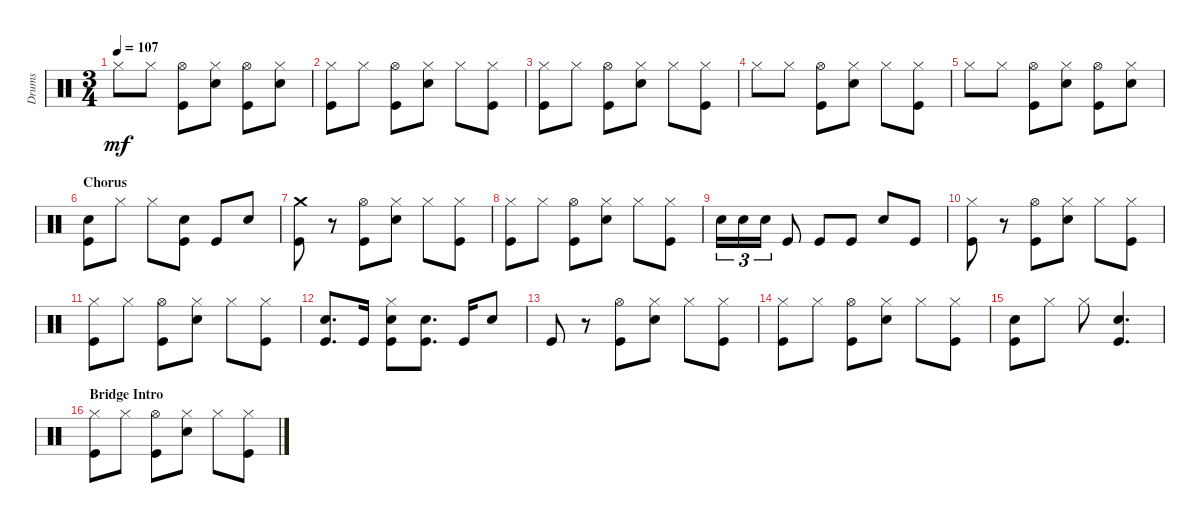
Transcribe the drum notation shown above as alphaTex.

\track ("Drums" "Drums") {instrument percussion}
\staff {score}
\articulation defaults
\ts (3 4)
\tempo 107
\clef neutral
\ks c "Hi-Hat (closed)".8{dy mf} "Hi-Hat (closed)".8
("Hi-Hat (open)" "Kick (hit)").8 ("Hi-Hat (closed)" "Snare (hit) 2").8 ("Hi-Hat (open)" "Kick (hit)").8 ("Hi-Hat (closed)" "Snare (hit) 2").8 |
("Hi-Hat (closed)" "Kick (hit)").8 "Hi-Hat (closed)".8 ("Hi-Hat (open)" "Kick (hit)").8 ("Snare (hit) 2" "Hi-Hat (closed)").8 "Hi-Hat (closed)".8 ("Hi-Hat (closed)" "Kick (hit)").8 |
("Hi-Hat (closed)" "Kick (hit)").8 "Hi-Hat (closed)".8 ("Hi-Hat (open)" "Kick (hit)").8 ("Hi-Hat (closed)" "Snare (hit) 2").8 "Hi-Hat (closed)".8 ("Hi-Hat (closed)" "Kick (hit)").8 |
"Hi-Hat (closed)".8 "Hi-Hat (closed)".8 ("Hi-Hat (open)" "Kick (hit)").8 ("Snare (hit) 2" "Hi-Hat (closed)").8 "Hi-Hat (closed)".8 ("Kick (hit)" "Hi-Hat (closed)").8 |
"Hi-Hat (closed)".8 "Hi-Hat (closed)".8 ("Hi-Hat (open)" "Kick (hit)").8 ("Hi-Hat (closed)" "Snare (hit) 2").8 ("Hi-Hat (open)" "Kick (hit)").8 ("Hi-Hat (closed)" "Snare (hit) 2").8 |
\section ("" "Chorus")
("Kick (hit)" "Snare (hit) 2").8 "Hi-Hat (closed)".8 "Hi-Hat (closed)".8 ("Kick (hit)" "Snare (hit) 2").8 "Kick (hit)".8 "Snare (hit) 2".8 |
("Kick (hit)" "Crash medium (hit)").8 r.8 ("Hi-Hat (open)" "Kick (hit)").8 ("Snare (hit) 2" "Hi-Hat (closed)").8 "Hi-Hat (closed)".8 ("Hi-Hat (closed)" "Kick (hit)").8 |
("Hi-Hat (closed)" "Kick (hit)").8 "Hi-Hat (closed)".8 ("Hi-Hat (open)" "Kick (hit)").8 ("Hi-Hat (closed)" "Snare (hit) 2").8 "Hi-Hat (closed)".8 ("Hi-Hat (closed)" "Kick (hit)").8 |
"Snare (hit) 2".16{tu (3 2)} "Snare (hit) 2".16{tu (3 2)} "Snare (hit) 2".16{tu (3 2)} "Kick (hit)".8 "Kick (hit)".8 "Kick (hit)".8 "Snare (hit) 2".8 "Kick (hit)".8 |
("Kick (hit)" "Hi-Hat (closed)").8 r.8 ("Hi-Hat (open)" "Kick (hit)").8 ("Snare (hit) 2" "Hi-Hat (closed)").8 "Hi-Hat (closed)".8 ("Hi-Hat (closed)" "Kick (hit)").8 |
("Hi-Hat (closed)" "Kick (hit)").8 "Hi-Hat (closed)".8 ("Hi-Hat (open)" "Kick (hit)").8 ("Hi-Hat (closed)" "Snare (hit) 2").8 "Hi-Hat (closed)".8 ("Hi-Hat (closed)" "Kick (hit)").8 |
("Kick (hit)" "Snare (hit) 2").8{d} "Kick (hit)".16 ("Hi-Hat (closed)" "Kick (hit)" "Snare (hit) 2").8 ("Kick (hit)" "Snare (hit) 2").8{d} "Kick (hit)".16 "Snare (hit) 2".8 |
"Kick (hit)".8 r.8 ("Hi-Hat (open)" "Kick (hit)").8 ("Snare (hit) 2" "Hi-Hat (closed)").8 "Hi-Hat (closed)".8 ("Hi-Hat (closed)" "Kick (hit)").8 |
("Hi-Hat (closed)" "Kick (hit)").8 "Hi-Hat (closed)".8 ("Hi-Hat (open)" "Kick (hit)").8 ("Hi-Hat (closed)" "Snare (hit) 2").8 "Hi-Hat (closed)".8 ("Hi-Hat (closed)" "Kick (hit)").8 |
("Kick (hit)" "Snare (hit) 2").8 "Hi-Hat (closed)".8 "Hi-Hat (closed)".8 ("Kick (hit)" "Snare (hit) 2").4{d} |
\section ("" "Bridge Intro")
("Hi-Hat (closed)" "Kick (hit)").8 "Hi-Hat (closed)".8 ("Hi-Hat (open)" "Kick (hit)").8 ("Snare (hit) 2" "Hi-Hat (closed)").8 "Hi-Hat (closed)".8 ("Hi-Hat (closed)" "Kick (hit)").8
